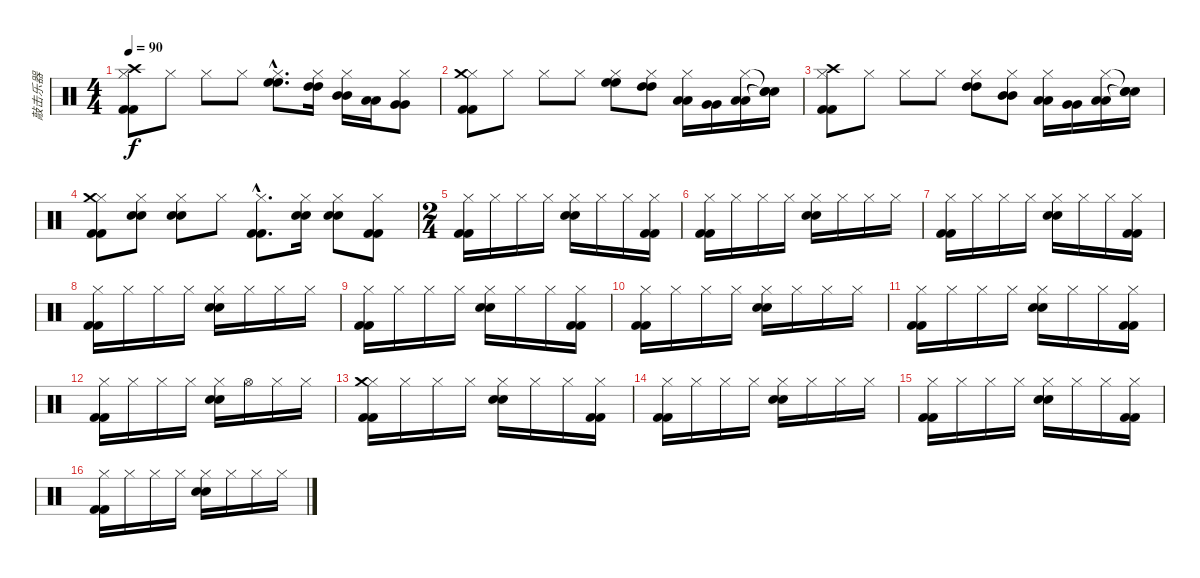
\track ("敲击乐器" "敲击乐器") {instrument percussion}
\staff {score}
\articulation defaults
\ts (4 4)
\tempo 90
\clef neutral
\ks c
("Hi-Hat (closed)" "Crash high (hit)" "Kick (hit) 2" "Kick (hit) 2").8{dy f} "Hi-Hat (closed)".8 "Hi-Hat (closed)".8 "Hi-Hat (closed)".8 ("Hi-Hat (closed)"{hac} "High Floor Tom (hit)"{hac} "High Floor Tom (hit)"{hac}).8{d} ("Hi-Hat (closed)" "High Tom (hit)" "High Tom (hit)").16 ("Hi-Hat (closed)" "Mid Tom (hit)" "Mid Tom (hit)").16 ("Low Tom (hit)" "Low Tom (hit)").16 ("Hi-Hat (closed)" "Very Low Tom (hit)" "Very Low Tom (hit)").8 |
("Hi-Hat (closed)" "Crash medium (hit)" "Kick (hit) 2" "Kick (hit) 2").8 "Hi-Hat (closed)".8 "Hi-Hat (closed)".8 "Hi-Hat (closed)".8 ("Hi-Hat (closed)" "High Floor Tom (hit)" "High Floor Tom (hit)").8 ("Hi-Hat (closed)" "High Tom (hit)" "High Tom (hit)").8 ("Hi-Hat (closed)" "Low Tom (hit)" "Low Tom (hit)").16 ("Very Low Tom (hit)" "Very Low Tom (hit)").16 ("Hi-Hat (closed)" "Low Floor Tom (hit)" "Low Floor Tom (hit)").16 ("Snare (hit)"{t} "Snare (hit)"{t} "Snare (hit)"{t}).16 |
("Hi-Hat (closed)" "Crash high (hit)" "Kick (hit) 2" "Kick (hit) 2").8 "Hi-Hat (closed)".8 "Hi-Hat (closed)".8 "Hi-Hat (closed)".8 ("Hi-Hat (closed)" "High Tom (hit)" "High Tom (hit)").8 ("Hi-Hat (closed)" "Mid Tom (hit)" "Mid Tom (hit)").8 ("Hi-Hat (closed)" "Low Tom (hit)" "Low Tom (hit)").16 ("Very Low Tom (hit)" "Very Low Tom (hit)").16 ("Hi-Hat (closed)" "Low Floor Tom (hit)" "Low Floor Tom (hit)").16 ("Snare (hit)"{t} "Snare (hit)"{t} "Snare (hit)"{t}).16 |
("Hi-Hat (closed)" "Crash medium (hit)" "Kick (hit) 2" "Kick (hit) 2").8 ("Hi-Hat (closed)" "Electric Snare (hit)" "Electric Snare (hit)").8 ("Hi-Hat (closed)" "Electric Snare (hit)" "Electric Snare (hit)").8 "Hi-Hat (closed)".8 ("Hi-Hat (closed)"{hac} "Kick (hit) 2"{hac} "Kick (hit) 2"{hac}).8{d} ("Hi-Hat (closed)" "Electric Snare (hit)" "Electric Snare (hit)").16 ("Hi-Hat (closed)" "Electric Snare (hit)" "Electric Snare (hit)").8 ("Hi-Hat (closed)" "Kick (hit) 2" "Kick (hit) 2").8 |
\ts (2 4)
("Hi-Hat (closed)" "Kick (hit) 2" "Kick (hit) 2").16 "Hi-Hat (closed)".16 "Hi-Hat (closed)".16 "Hi-Hat (closed)".16 ("Hi-Hat (closed)" "Electric Snare (hit)" "Electric Snare (hit)").16 "Hi-Hat (closed)".16 "Hi-Hat (closed)".16 ("Hi-Hat (closed)" "Kick (hit) 2" "Kick (hit) 2").16 |
("Hi-Hat (closed)" "Kick (hit) 2" "Kick (hit) 2").16 "Hi-Hat (closed)".16 "Hi-Hat (closed)".16 "Hi-Hat (closed)".16 ("Hi-Hat (closed)" "Electric Snare (hit)" "Electric Snare (hit)").16 "Hi-Hat (closed)".16 "Hi-Hat (closed)".16 "Hi-Hat (closed)".16 |
("Hi-Hat (closed)" "Kick (hit) 2" "Kick (hit) 2").16 "Hi-Hat (closed)".16 "Hi-Hat (closed)".16 "Hi-Hat (closed)".16 ("Hi-Hat (closed)" "Electric Snare (hit)" "Electric Snare (hit)").16 "Hi-Hat (closed)".16 "Hi-Hat (closed)".16 ("Hi-Hat (closed)" "Kick (hit) 2" "Kick (hit) 2").16 |
("Hi-Hat (closed)" "Kick (hit) 2" "Kick (hit) 2").16 "Hi-Hat (closed)".16 "Hi-Hat (closed)".16 "Hi-Hat (closed)".16 ("Hi-Hat (closed)" "Electric Snare (hit)" "Electric Snare (hit)").16 "Hi-Hat (closed)".16 "Hi-Hat (closed)".16 "Hi-Hat (closed)".16 |
("Hi-Hat (closed)" "Kick (hit) 2" "Kick (hit) 2").16 "Hi-Hat (closed)".16 "Hi-Hat (closed)".16 "Hi-Hat (closed)".16 ("Hi-Hat (closed)" "Electric Snare (hit)" "Electric Snare (hit)").16 "Hi-Hat (closed)".16 "Hi-Hat (closed)".16 ("Hi-Hat (closed)" "Kick (hit) 2" "Kick (hit) 2").16 |
("Hi-Hat (closed)" "Kick (hit) 2" "Kick (hit) 2").16 "Hi-Hat (closed)".16 "Hi-Hat (closed)".16 "Hi-Hat (closed)".16 ("Hi-Hat (closed)" "Electric Snare (hit)" "Electric Snare (hit)").16 "Hi-Hat (closed)".16 "Hi-Hat (closed)".16 "Hi-Hat (closed)".16 |
("Hi-Hat (closed)" "Kick (hit) 2" "Kick (hit) 2").16 "Hi-Hat (closed)".16 "Hi-Hat (closed)".16 "Hi-Hat (closed)".16 ("Hi-Hat (closed)" "Electric Snare (hit)" "Electric Snare (hit)").16 "Hi-Hat (closed)".16 "Hi-Hat (closed)".16 ("Hi-Hat (closed)" "Kick (hit) 2" "Kick (hit) 2").16 |
("Hi-Hat (closed)" "Kick (hit) 2" "Kick (hit) 2").16 "Hi-Hat (closed)".16 "Hi-Hat (closed)".16 "Hi-Hat (closed)".16 ("Hi-Hat (closed)" "Electric Snare (hit)" "Electric Snare (hit)").16 "Hi-Hat (open)".16 "Hi-Hat (closed)".16 "Hi-Hat (closed)".16 |
("Hi-Hat (closed)" "Crash medium (hit)" "Kick (hit) 2" "Kick (hit) 2").16 "Hi-Hat (closed)".16 "Hi-Hat (closed)".16 "Hi-Hat (closed)".16 ("Hi-Hat (closed)" "Electric Snare (hit)" "Electric Snare (hit)").16 "Hi-Hat (closed)".16 "Hi-Hat (closed)".16 ("Hi-Hat (closed)" "Kick (hit) 2" "Kick (hit) 2").16 |
("Hi-Hat (closed)" "Kick (hit) 2" "Kick (hit) 2").16 "Hi-Hat (closed)".16 "Hi-Hat (closed)".16 "Hi-Hat (closed)".16 ("Hi-Hat (closed)" "Electric Snare (hit)" "Electric Snare (hit)").16 "Hi-Hat (closed)".16 "Hi-Hat (closed)".16 "Hi-Hat (closed)".16 |
("Hi-Hat (closed)" "Kick (hit) 2" "Kick (hit) 2").16 "Hi-Hat (closed)".16 "Hi-Hat (closed)".16 "Hi-Hat (closed)".16 ("Hi-Hat (closed)" "Electric Snare (hit)" "Electric Snare (hit)").16 "Hi-Hat (closed)".16 "Hi-Hat (closed)".16 ("Hi-Hat (closed)" "Kick (hit) 2" "Kick (hit) 2").16 |
("Hi-Hat (closed)" "Kick (hit) 2" "Kick (hit) 2").16 "Hi-Hat (closed)".16 "Hi-Hat (closed)".16 "Hi-Hat (closed)".16 ("Hi-Hat (closed)" "Electric Snare (hit)" "Electric Snare (hit)").16 "Hi-Hat (closed)".16 "Hi-Hat (closed)".16 "Hi-Hat (closed)".16
